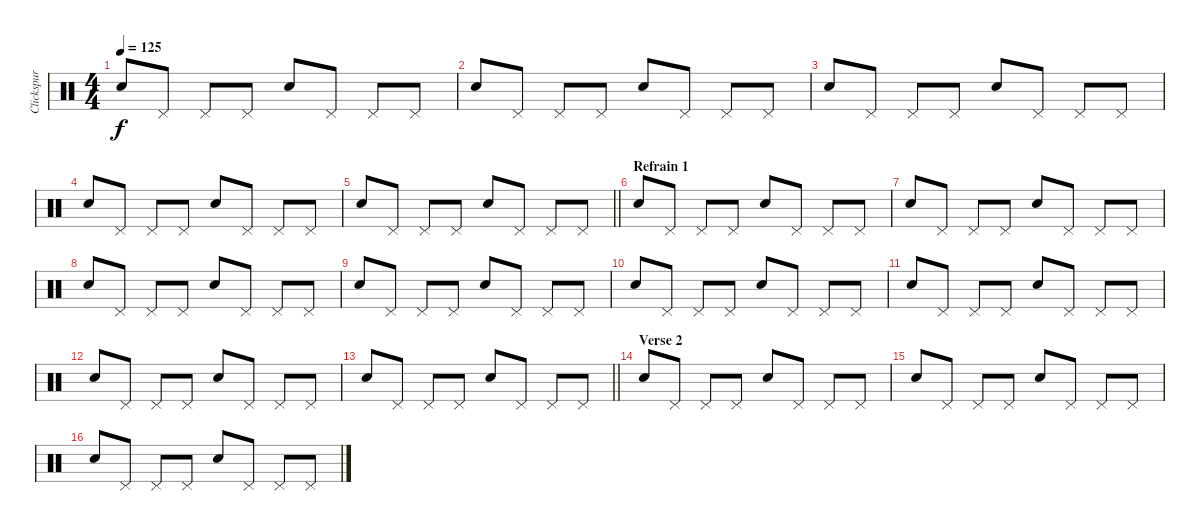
\track ("Clickspur" "Clickspur") {instrument percussion}
\staff {score}
\articulation defaults
\ts (4 4)
\tempo 125
\clef neutral
\ks c "Electric Snare (hit)".8{dy f} "Pedal Hi-Hat (hit)".8 "Pedal Hi-Hat (hit)".8 "Pedal Hi-Hat (hit)".8 "Electric Snare (hit)".8 "Pedal Hi-Hat (hit)".8 "Pedal Hi-Hat (hit)".8 "Pedal Hi-Hat (hit)".8
|
"Electric Snare (hit)".8 "Pedal Hi-Hat (hit)".8 "Pedal Hi-Hat (hit)".8 "Pedal Hi-Hat (hit)".8 "Electric Snare (hit)".8 "Pedal Hi-Hat (hit)".8 "Pedal Hi-Hat (hit)".8 "Pedal Hi-Hat (hit)".8 |
"Electric Snare (hit)".8 "Pedal Hi-Hat (hit)".8 "Pedal Hi-Hat (hit)".8 "Pedal Hi-Hat (hit)".8 "Electric Snare (hit)".8 "Pedal Hi-Hat (hit)".8 "Pedal Hi-Hat (hit)".8 "Pedal Hi-Hat (hit)".8 |
"Electric Snare (hit)".8 "Pedal Hi-Hat (hit)".8 "Pedal Hi-Hat (hit)".8 "Pedal Hi-Hat (hit)".8 "Electric Snare (hit)".8 "Pedal Hi-Hat (hit)".8 "Pedal Hi-Hat (hit)".8 "Pedal Hi-Hat (hit)".8 |
\barLineRight lightlight "Electric Snare (hit)".8 "Pedal Hi-Hat (hit)".8 "Pedal Hi-Hat (hit)".8 "Pedal Hi-Hat (hit)".8 "Electric Snare (hit)".8 "Pedal Hi-Hat (hit)".8 "Pedal Hi-Hat (hit)".8 "Pedal Hi-Hat (hit)".8
|
\section ("" "Refrain 1")
"Electric Snare (hit)".8 "Pedal Hi-Hat (hit)".8 "Pedal Hi-Hat (hit)".8 "Pedal Hi-Hat (hit)".8 "Electric Snare (hit)".8 "Pedal Hi-Hat (hit)".8 "Pedal Hi-Hat (hit)".8 "Pedal Hi-Hat (hit)".8 |
"Electric Snare (hit)".8 "Pedal Hi-Hat (hit)".8 "Pedal Hi-Hat (hit)".8 "Pedal Hi-Hat (hit)".8 "Electric Snare (hit)".8 "Pedal Hi-Hat (hit)".8 "Pedal Hi-Hat (hit)".8 "Pedal Hi-Hat (hit)".8 |
"Electric Snare (hit)".8 "Pedal Hi-Hat (hit)".8 "Pedal Hi-Hat (hit)".8 "Pedal Hi-Hat (hit)".8 "Electric Snare (hit)".8 "Pedal Hi-Hat (hit)".8 "Pedal Hi-Hat (hit)".8 "Pedal Hi-Hat (hit)".8 |
"Electric Snare (hit)".8 "Pedal Hi-Hat (hit)".8 "Pedal Hi-Hat (hit)".8 "Pedal Hi-Hat (hit)".8 "Electric Snare (hit)".8 "Pedal Hi-Hat (hit)".8 "Pedal Hi-Hat (hit)".8 "Pedal Hi-Hat (hit)".8 |
"Electric Snare (hit)".8 "Pedal Hi-Hat (hit)".8 "Pedal Hi-Hat (hit)".8 "Pedal Hi-Hat (hit)".8 "Electric Snare (hit)".8 "Pedal Hi-Hat (hit)".8 "Pedal Hi-Hat (hit)".8 "Pedal Hi-Hat (hit)".8 |
"Electric Snare (hit)".8 "Pedal Hi-Hat (hit)".8 "Pedal Hi-Hat (hit)".8 "Pedal Hi-Hat (hit)".8 "Electric Snare (hit)".8 "Pedal Hi-Hat (hit)".8 "Pedal Hi-Hat (hit)".8 "Pedal Hi-Hat (hit)".8 |
"Electric Snare (hit)".8 "Pedal Hi-Hat (hit)".8 "Pedal Hi-Hat (hit)".8 "Pedal Hi-Hat (hit)".8 "Electric Snare (hit)".8 "Pedal Hi-Hat (hit)".8 "Pedal Hi-Hat (hit)".8 "Pedal Hi-Hat (hit)".8 |
\barLineRight lightlight "Electric Snare (hit)".8 "Pedal Hi-Hat (hit)".8 "Pedal Hi-Hat (hit)".8 "Pedal Hi-Hat (hit)".8 "Electric Snare (hit)".8 "Pedal Hi-Hat (hit)".8 "Pedal Hi-Hat (hit)".8 "Pedal Hi-Hat (hit)".8
|
\section ("" "Verse 2")
"Electric Snare (hit)".8 "Pedal Hi-Hat (hit)".8 "Pedal Hi-Hat (hit)".8 "Pedal Hi-Hat (hit)".8 "Electric Snare (hit)".8 "Pedal Hi-Hat (hit)".8 "Pedal Hi-Hat (hit)".8 "Pedal Hi-Hat (hit)".8 |
"Electric Snare (hit)".8 "Pedal Hi-Hat (hit)".8 "Pedal Hi-Hat (hit)".8 "Pedal Hi-Hat (hit)".8 "Electric Snare (hit)".8 "Pedal Hi-Hat (hit)".8 "Pedal Hi-Hat (hit)".8 "Pedal Hi-Hat (hit)".8 |
"Electric Snare (hit)".8 "Pedal Hi-Hat (hit)".8 "Pedal Hi-Hat (hit)".8 "Pedal Hi-Hat (hit)".8 "Electric Snare (hit)".8 "Pedal Hi-Hat (hit)".8 "Pedal Hi-Hat (hit)".8 "Pedal Hi-Hat (hit)".8
